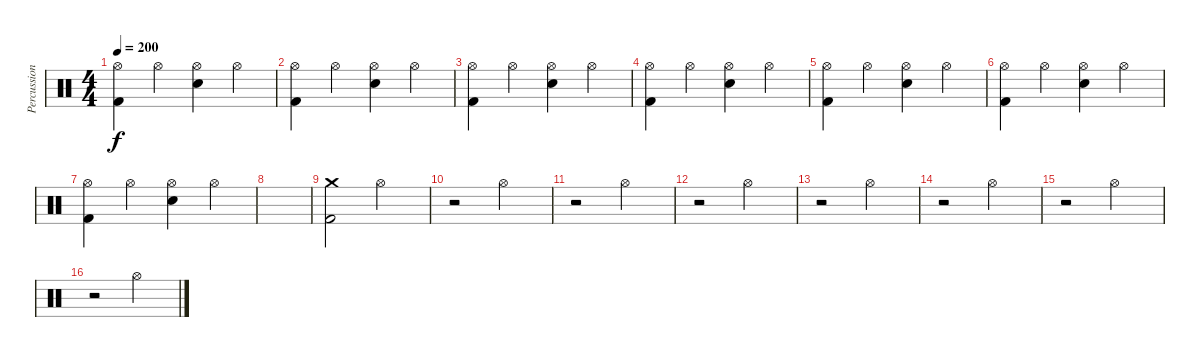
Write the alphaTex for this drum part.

\track ("Percussion" "Percussion") {instrument percussion}
\staff {score}
\articulation defaults
\ts (4 4)
\tempo 200
\clef neutral
\ks c
("Hi-Hat (open)" "Kick (hit) 2").4{dy f} "Hi-Hat (open)".4 ("Hi-Hat (open)" "Snare (hit) 2").4 "Hi-Hat (open)".4 |
("Hi-Hat (open)" "Kick (hit) 2").4 "Hi-Hat (open)".4 ("Hi-Hat (open)" "Snare (hit) 2").4 "Hi-Hat (open)".4 |
("Hi-Hat (open)" "Kick (hit) 2").4 "Hi-Hat (open)".4 ("Hi-Hat (open)" "Snare (hit) 2").4 "Hi-Hat (open)".4 |
("Hi-Hat (open)" "Kick (hit) 2").4 "Hi-Hat (open)".4 ("Hi-Hat (open)" "Snare (hit) 2").4 "Hi-Hat (open)".4 |
("Hi-Hat (open)" "Kick (hit) 2").4 "Hi-Hat (open)".4 ("Hi-Hat (open)" "Snare (hit) 2").4 "Hi-Hat (open)".4 |
("Hi-Hat (open)" "Kick (hit) 2").4 "Hi-Hat (open)".4 ("Hi-Hat (open)" "Snare (hit) 2").4 "Hi-Hat (open)".4 |
("Hi-Hat (open)" "Kick (hit) 2").4 "Hi-Hat (open)".4 ("Hi-Hat (open)" "Snare (hit) 2").4 "Hi-Hat (open)".4 |
|
("Crash medium (hit)" "Kick (hit) 2").2 "Hi-Hat (open)".2 |
r.2 "Hi-Hat (open)".2 |
r.2 "Hi-Hat (open)".2 |
r.2 "Hi-Hat (open)".2 |
r.2 "Hi-Hat (open)".2 |
r.2 "Hi-Hat (open)".2 |
r.2 "Hi-Hat (open)".2 |
r.2 "Hi-Hat (open)".2
